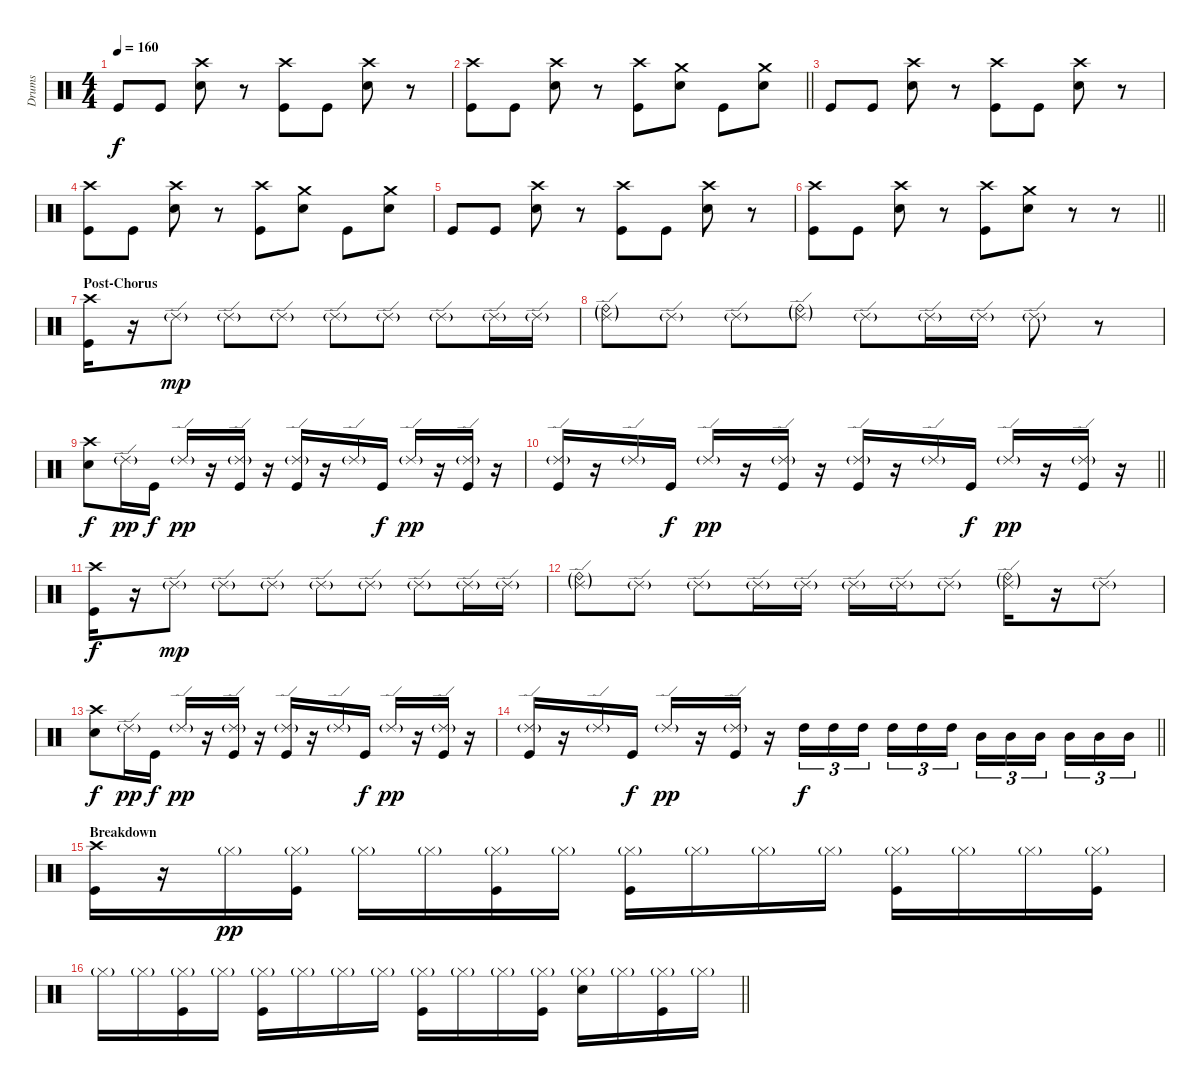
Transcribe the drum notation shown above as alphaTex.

\track ("Drums" "Drums") {instrument percussion}
\staff {score}
\articulation defaults
\ts (4 4)
\tempo 160
\clef neutral
\ks c "Kick (hit)".8{dy f} "Kick (hit)".8
("Crash high (hit)" "Snare (hit) 2").8 r.8 ("Crash high (hit)" "Kick (hit)").8 "Kick (hit)".8 ("Crash high (hit)" "Snare (hit) 2").8 r.8 |
\barLineRight lightlight
("Crash high (hit)" "Kick (hit)").8 "Kick (hit)".8 ("Crash high (hit)" "Snare (hit) 2").8 r.8 ("Crash high (hit)" "Kick (hit)").8 ("Crash medium (hit)" "Snare (hit) 2").8 "Kick (hit)".8 ("Crash medium (hit)" "Snare (hit) 2").8 |
"Kick (hit)".8 "Kick (hit)".8 ("Crash high (hit)" "Snare (hit) 2").8 r.8 ("Crash high (hit)" "Kick (hit)").8 "Kick (hit)".8 ("Crash high (hit)" "Snare (hit) 2").8 r.8 |
("Crash high (hit)" "Kick (hit)").8 "Kick (hit)".8 ("Crash high (hit)" "Snare (hit) 2").8 r.8 ("Crash high (hit)" "Kick (hit)").8 ("Crash medium (hit)" "Snare (hit) 2").8 "Kick (hit)".8 ("Crash medium (hit)" "Snare (hit) 2").8 |
"Kick (hit)".8 "Kick (hit)".8 ("Crash high (hit)" "Snare (hit) 2").8 r.8 ("Crash high (hit)" "Kick (hit)").8 "Kick (hit)".8 ("Crash high (hit)" "Snare (hit) 2").8 r.8 |
\barLineRight lightlight
("Crash high (hit)" "Kick (hit)").8 "Kick (hit)".8 ("Crash high (hit)" "Snare (hit) 2").8 r.8 ("Crash high (hit)" "Kick (hit)").8 ("Crash medium (hit)" "Snare (hit) 2").8 r.8 r.8 |
\section ("" "Post-Chorus")
("Crash high (hit)" "Kick (hit)").16 r.16 "Ride (edge) 2"{g}.8{dy mp} "Ride (edge) 2"{g}.8 "Ride (edge) 2"{g}.8 "Ride (edge) 2"{g}.8 "Ride (edge) 2"{g}.8 "Ride (edge) 2"{g}.8 "Ride (edge) 2"{g}.16 "Ride (edge) 2"{g}.16 |
("Ride (edge) 2"{g} "Ride (bell)"{g}).8 "Ride (edge) 2"{g}.8 "Ride (edge) 2"{g}.8 ("Ride (edge) 2"{g} "Ride (bell)"{g}).8 "Ride (edge) 2"{g}.8 "Ride (edge) 2"{g}.16 "Ride (edge) 2"{g}.16 "Ride (edge) 2"{g}.8 r.8 |
("Crash high (hit)" "Snare (hit) 2").8{dy f} "Ride (edge) 2"{g}.16{dy pp} "Kick (hit)".16{dy f} "Ride (edge) 2"{g}.16{dy pp} r.16 ("Ride (edge) 2"{g} "Kick (hit)").16 r.16 ("Ride (edge) 2"{g} "Kick (hit)").16 r.16 "Ride (edge) 2"{g}.16 "Kick (hit)".16{dy f} "Ride (edge) 2"{g}.16{dy pp} r.16 ("Ride (edge) 2"{g} "Kick (hit)").16 r.16 |
\barLineRight lightlight
("Ride (edge) 2"{g} "Kick (hit)").16 r.16 "Ride (edge) 2"{g}.16 "Kick (hit)".16{dy f} "Ride (edge) 2"{g}.16{dy pp} r.16 ("Ride (edge) 2"{g} "Kick (hit)").16 r.16 ("Ride (edge) 2"{g} "Kick (hit)").16 r.16 "Ride (edge) 2"{g}.16 "Kick (hit)".16{dy f} "Ride (edge) 2"{g}.16{dy pp} r.16 ("Ride (edge) 2"{g} "Kick (hit)").16 r.16 |
("Crash high (hit)" "Kick (hit)").16{dy f} r.16 "Ride (edge) 2"{g}.8{dy mp} "Ride (edge) 2"{g}.8 "Ride (edge) 2"{g}.8 "Ride (edge) 2"{g}.8 "Ride (edge) 2"{g}.8 "Ride (edge) 2"{g}.8 "Ride (edge) 2"{g}.16 "Ride (edge) 2"{g}.16 |
("Ride (edge) 2"{g} "Ride (bell)"{g}).8 "Ride (edge) 2"{g}.8 "Ride (edge) 2"{g}.8 "Ride (edge) 2"{g}.16 "Ride (edge) 2"{g}.16 "Ride (edge) 2"{g}.16 "Ride (edge) 2"{g}.16 "Ride (edge) 2"{g}.8 ("Ride (edge) 2"{g} "Ride (bell)"{g}).16 r.16 "Ride (edge) 2"{g}.8 |
("Crash high (hit)" "Snare (hit) 2").8{dy f} "Ride (edge) 2"{g}.16{dy pp} "Kick (hit)".16{dy f} "Ride (edge) 2"{g}.16{dy pp} r.16 ("Ride (edge) 2"{g} "Kick (hit)").16 r.16 ("Ride (edge) 2"{g} "Kick (hit)").16 r.16 "Ride (edge) 2"{g}.16 "Kick (hit)".16{dy f} "Ride (edge) 2"{g}.16{dy pp} r.16 ("Ride (edge) 2"{g} "Kick (hit)").16 r.16 |
\barLineRight lightlight
("Ride (edge) 2"{g} "Kick (hit)").16 r.16 "Ride (edge) 2"{g}.16 "Kick (hit)".16{dy f} "Ride (edge) 2"{g}.16{dy pp} r.16 ("Ride (edge) 2"{g} "Kick (hit)").16 r.16 "High Tom (hit)".16{tu (3 2) dy f} "High Tom (hit)".16{tu (3 2)} "High Tom (hit)".16{tu (3 2) beam splitsecondary} "High Tom (hit)".16{tu (3 2)} "High Tom (hit)".16{tu (3 2)} "High Tom (hit)".16{tu (3 2)} "Mid Tom (hit)".16{tu (3 2)} "Mid Tom (hit)".16{tu (3 2)} "Mid Tom (hit)".16{tu (3 2) beam splitsecondary} "Mid Tom (hit)".16{tu (3 2)} "Mid Tom (hit)".16{tu (3 2)} "Mid Tom (hit)".16{tu (3 2)} |
\section ("" "Breakdown")
("Crash high (hit)" "Kick (hit)").16 r.16 "Hi-Hat (closed)"{g}.16{dy pp} ("Hi-Hat (closed)"{g} "Kick (hit)").16 "Hi-Hat (closed)"{g}.16 "Hi-Hat (closed)"{g}.16 ("Hi-Hat (closed)"{g} "Kick (hit)").16 "Hi-Hat (closed)"{g}.16 ("Hi-Hat (closed)"{g} "Kick (hit)").16 "Hi-Hat (closed)"{g}.16 "Hi-Hat (closed)"{g}.16 "Hi-Hat (closed)"{g}.16 ("Hi-Hat (closed)"{g} "Kick (hit)").16 "Hi-Hat (closed)"{g}.16 "Hi-Hat (closed)"{g}.16 ("Hi-Hat (closed)"{g} "Kick (hit)").16 |
\barLineRight lightlight "Hi-Hat (closed)"{g}.16 "Hi-Hat (closed)"{g}.16
("Hi-Hat (closed)"{g} "Kick (hit)").16 "Hi-Hat (closed)"{g}.16 ("Hi-Hat (closed)"{g} "Kick (hit)").16 "Hi-Hat (closed)"{g}.16 "Hi-Hat (closed)"{g}.16 "Hi-Hat (closed)"{g}.16 ("Hi-Hat (closed)"{g} "Kick (hit)").16 "Hi-Hat (closed)"{g}.16 "Hi-Hat (closed)"{g}.16 ("Hi-Hat (closed)"{g} "Kick (hit)").16 ("Hi-Hat (closed)"{g} "Snare (hit) 2").16 "Hi-Hat (closed)"{g}.16 ("Hi-Hat (closed)"{g} "Kick (hit)").16 "Hi-Hat (closed)"{g}.16
